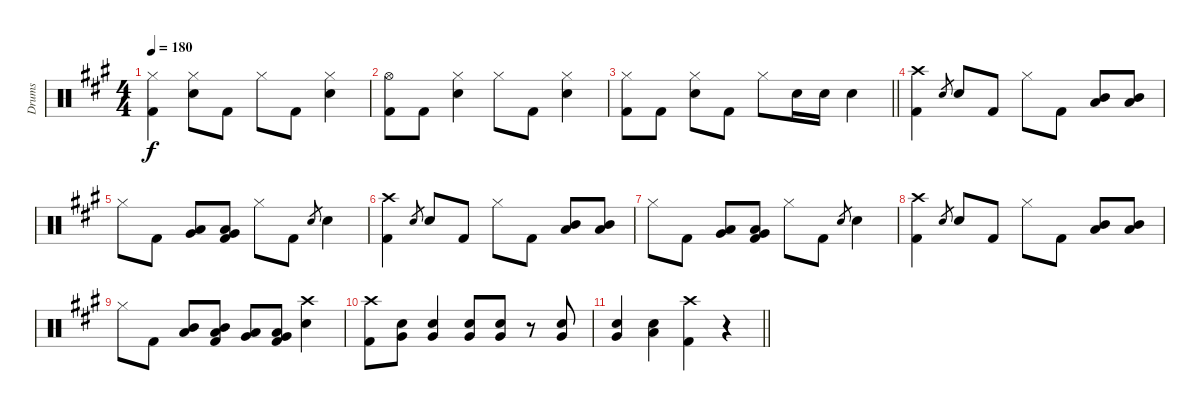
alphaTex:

\track ("Drums" "Drums") {instrument percussion}
\staff {score}
\articulation defaults
\ts (4 4)
\tempo 180
\clef neutral
\ks a
("Hi-Hat (closed)" "Kick (hit) 2").4{dy f} ("Hi-Hat (closed)" "Electric Snare (hit)").8 "Kick (hit) 2".8 "Hi-Hat (closed)".8 "Kick (hit) 2".8 ("Hi-Hat (closed)" "Electric Snare (hit)").4 |
("Hi-Hat (open)" "Kick (hit) 2").8 "Kick (hit) 2".8 ("Hi-Hat (closed)" "Electric Snare (hit)").4 "Hi-Hat (closed)".8 "Kick (hit) 2".8 ("Hi-Hat (closed)" "Electric Snare (hit)").4 |
\barLineRight lightlight
("Hi-Hat (closed)" "Kick (hit) 2").8 "Kick (hit) 2".8 ("Hi-Hat (closed)" "Electric Snare (hit)").8 "Kick (hit) 2".8 "Hi-Hat (closed)".8 "Electric Snare (hit)".16 "Electric Snare (hit)".16 "Electric Snare (hit)".4 |
("Crash high (hit)" "Kick (hit) 2").4 "Electric Snare (hit)".8{gr} "Electric Snare (hit)".8 "Kick (hit) 2".8 "Hi-Hat (closed)".8 "Kick (hit) 2".8 ("Mid Tom (hit)" "Low Tom (hit)").8 ("Mid Tom (hit)" "Low Tom (hit)").8 |
"Hi-Hat (closed)".8 "Kick (hit) 2".8 ("Low Tom (hit)" "Very Low Tom (hit)").8 ("Low Tom (hit)" "Very Low Tom (hit)" "Kick (hit) 2").8 "Hi-Hat (closed)".8 "Kick (hit) 2".8 "Electric Snare (hit)".8{gr} "Electric Snare (hit)".4 |
("Crash high (hit)" "Kick (hit) 2").4 "Electric Snare (hit)".8{gr} "Electric Snare (hit)".8 "Kick (hit) 2".8 "Hi-Hat (closed)".8 "Kick (hit) 2".8 ("Mid Tom (hit)" "Low Tom (hit)").8 ("Mid Tom (hit)" "Low Tom (hit)").8 |
"Hi-Hat (closed)".8 "Kick (hit) 2".8 ("Low Tom (hit)" "Very Low Tom (hit)").8 ("Low Tom (hit)" "Very Low Tom (hit)" "Kick (hit) 2").8 "Hi-Hat (closed)".8 "Kick (hit) 2".8 "Electric Snare (hit)".8{gr} "Electric Snare (hit)".4 |
("Crash high (hit)" "Kick (hit) 2").4 "Electric Snare (hit)".8{gr} "Electric Snare (hit)".8 "Kick (hit) 2".8 "Hi-Hat (closed)".8 "Kick (hit) 2".8 ("Mid Tom (hit)" "Low Tom (hit)").8 ("Mid Tom (hit)" "Low Tom (hit)").8 |
"Hi-Hat (closed)".8 "Kick (hit) 2".8 ("Mid Tom (hit)" "Low Tom (hit)").8 ("Mid Tom (hit)" "Low Tom (hit)" "Kick (hit) 2").8 ("Low Tom (hit)" "Very Low Tom (hit)").8 ("Low Tom (hit)" "Very Low Tom (hit)" "Kick (hit) 2").8 ("Crash high (hit)" "Electric Snare (hit)").4 |
("Crash high (hit)" "Kick (hit) 2").8 ("Very Low Tom (hit)" "Electric Snare (hit)").8 ("Very Low Tom (hit)" "Electric Snare (hit)").4 ("Very Low Tom (hit)" "Electric Snare (hit)").8 ("Very Low Tom (hit)" "Electric Snare (hit)").8 r.8 ("Very Low Tom (hit)" "Electric Snare (hit)").8 |
\barLineRight lightlight
("Very Low Tom (hit)" "Electric Snare (hit)").4 ("Low Floor Tom (hit)" "Electric Snare (hit)").4 ("Crash high (hit)" "Kick (hit) 2").4 r.4
